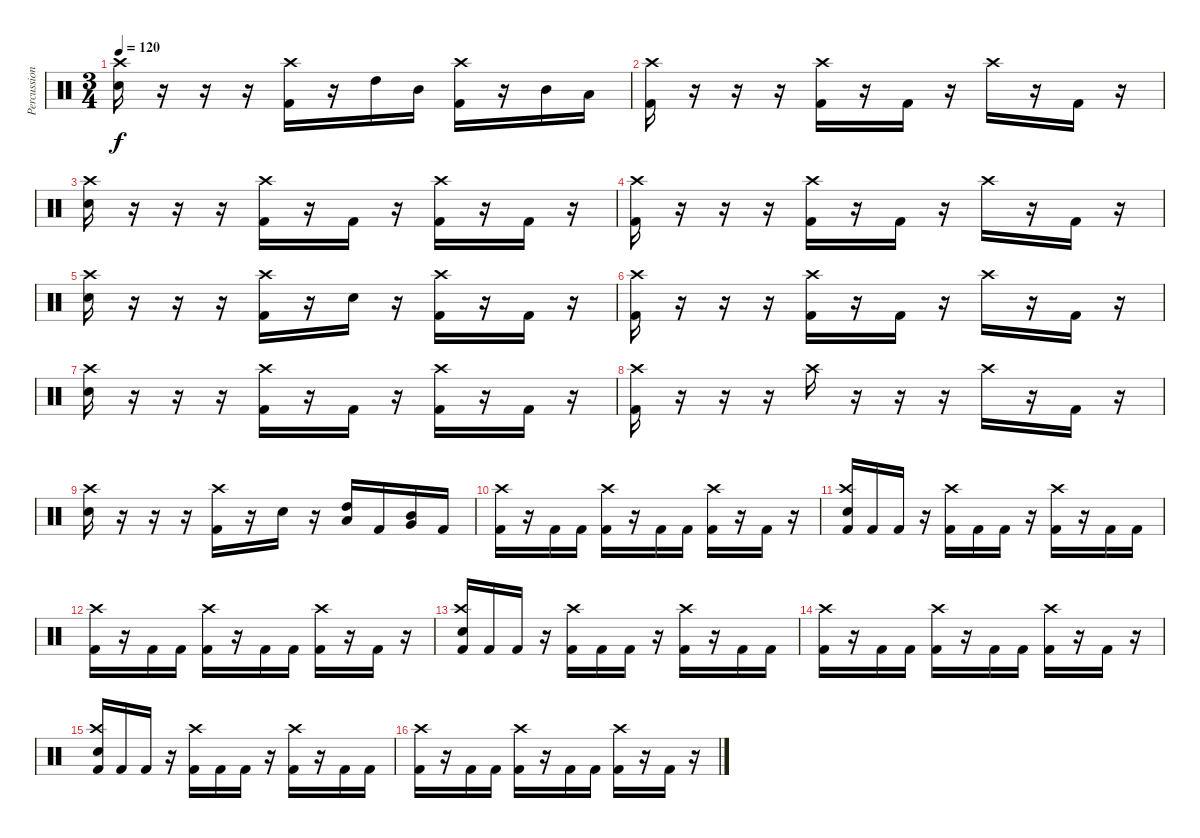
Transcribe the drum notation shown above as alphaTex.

\track ("Percussion" "Percussion") {instrument percussion}
\staff {score}
\articulation defaults
\ts (3 4)
\tempo 120
\clef neutral
\ks c
("Electric Snare (hit)" "Crash high (hit)").16{dy f} r.16 r.16 r.16 ("Kick (hit) 2" "Crash high (hit)").16 r.16 "High Tom (hit)".16 "Mid Tom (hit)".16 ("Kick (hit) 2" "Crash high (hit)").16 r.16 "Mid Tom (hit)".16 "Low Tom (hit)".16 |
("Kick (hit) 2" "Crash high (hit)").16 r.16 r.16 r.16 ("Kick (hit) 2" "Crash high (hit)").16 r.16 "Kick (hit) 2".16 r.16 "Crash high (hit)".16 r.16 "Kick (hit) 2".16 r.16 |
("Electric Snare (hit)" "Crash high (hit)").16 r.16 r.16 r.16 ("Kick (hit) 2" "Crash high (hit)").16 r.16 "Kick (hit) 2".16 r.16 ("Kick (hit) 2" "Crash high (hit)").16 r.16 "Kick (hit) 2".16 r.16 |
("Kick (hit) 2" "Crash high (hit)").16 r.16 r.16 r.16 ("Kick (hit) 2" "Crash high (hit)").16 r.16 "Kick (hit) 2".16 r.16 "Crash high (hit)".16 r.16 "Kick (hit) 2".16 r.16 |
("Electric Snare (hit)" "Crash high (hit)").16 r.16 r.16 r.16 ("Kick (hit) 2" "Crash high (hit)").16 r.16 "Electric Snare (hit)".16 r.16 ("Kick (hit) 2" "Crash high (hit)").16 r.16 "Kick (hit) 2".16 r.16 |
("Kick (hit) 2" "Crash high (hit)").16 r.16 r.16 r.16 ("Kick (hit) 2" "Crash high (hit)").16 r.16 "Kick (hit) 2".16 r.16 "Crash high (hit)".16 r.16 "Kick (hit) 2".16 r.16 |
("Electric Snare (hit)" "Crash high (hit)").16 r.16 r.16 r.16 ("Kick (hit) 2" "Crash high (hit)").16 r.16 "Kick (hit) 2".16 r.16 ("Kick (hit) 2" "Crash high (hit)").16 r.16 "Kick (hit) 2".16 r.16 |
("Kick (hit) 2" "Crash high (hit)").16 r.16 r.16 r.16 "Crash high (hit)".16 r.16 r.16 r.16 "Crash high (hit)".16 r.16 "Kick (hit) 2".16 r.16 |
("Electric Snare (hit)" "Crash high (hit)").16 r.16 r.16 r.16 ("Kick (hit) 2" "Crash high (hit)").16 r.16 "Electric Snare (hit)".16 r.16 ("High Tom (hit)" "Low Tom (hit)").16 "Kick (hit) 2".16 ("Mid Tom (hit)" "Very Low Tom (hit)").16 "Kick (hit) 2".16 |
("Kick (hit) 2" "Crash high (hit)").16 r.16 "Kick (hit) 2".16 "Kick (hit) 2".16 ("Kick (hit) 2" "Crash high (hit)").16 r.16 "Kick (hit) 2".16 "Kick (hit) 2".16 ("Kick (hit) 2" "Crash high (hit)").16 r.16 "Kick (hit) 2".16 r.16 |
("Kick (hit) 2" "Electric Snare (hit)" "Crash high (hit)").16 "Kick (hit) 2".16 "Kick (hit) 2".16 r.16 ("Kick (hit) 2" "Crash high (hit)").16 "Kick (hit) 2".16 "Kick (hit) 2".16 r.16 ("Kick (hit) 2" "Crash high (hit)").16 r.16 "Kick (hit) 2".16 "Kick (hit) 2".16 |
("Kick (hit) 2" "Crash high (hit)").16 r.16 "Kick (hit) 2".16 "Kick (hit) 2".16 ("Kick (hit) 2" "Crash high (hit)").16 r.16 "Kick (hit) 2".16 "Kick (hit) 2".16 ("Kick (hit) 2" "Crash high (hit)").16 r.16 "Kick (hit) 2".16 r.16 |
("Kick (hit) 2" "Electric Snare (hit)" "Crash high (hit)").16 "Kick (hit) 2".16 "Kick (hit) 2".16 r.16 ("Kick (hit) 2" "Crash high (hit)").16 "Kick (hit) 2".16 "Kick (hit) 2".16 r.16 ("Kick (hit) 2" "Crash high (hit)").16 r.16 "Kick (hit) 2".16 "Kick (hit) 2".16 |
("Kick (hit) 2" "Crash high (hit)").16 r.16 "Kick (hit) 2".16 "Kick (hit) 2".16 ("Kick (hit) 2" "Crash high (hit)").16 r.16 "Kick (hit) 2".16 "Kick (hit) 2".16 ("Kick (hit) 2" "Crash high (hit)").16 r.16 "Kick (hit) 2".16 r.16 |
("Kick (hit) 2" "Electric Snare (hit)" "Crash high (hit)").16 "Kick (hit) 2".16 "Kick (hit) 2".16 r.16 ("Kick (hit) 2" "Crash high (hit)").16 "Kick (hit) 2".16 "Kick (hit) 2".16 r.16 ("Kick (hit) 2" "Crash high (hit)").16 r.16 "Kick (hit) 2".16 "Kick (hit) 2".16 |
("Kick (hit) 2" "Crash high (hit)").16 r.16 "Kick (hit) 2".16 "Kick (hit) 2".16 ("Kick (hit) 2" "Crash high (hit)").16 r.16 "Kick (hit) 2".16 "Kick (hit) 2".16 ("Kick (hit) 2" "Crash high (hit)").16 r.16 "Kick (hit) 2".16 r.16
